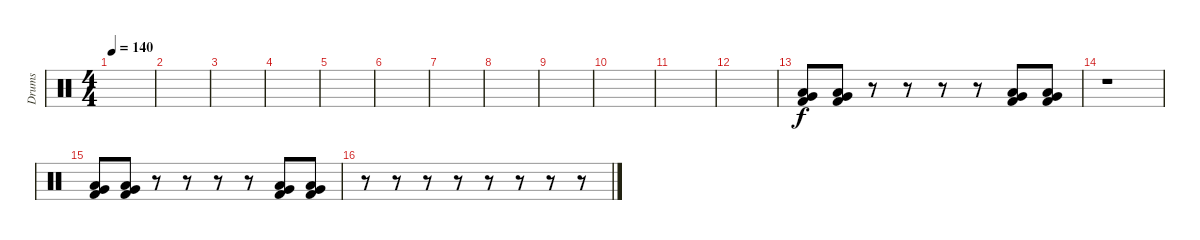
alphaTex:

\track ("Drums" "Drums") {instrument percussion}
\staff {score}
\articulation defaults
\ts (4 4)
\tempo 140
\clef neutral
\ks c
|
|
|
|
|
|
|
|
|
|
|
|
("Low Floor Tom (hit)" "Very Low Tom (hit)" "Kick (hit) 2").8 ("Low Floor Tom (hit)" "Very Low Tom (hit)" "Kick (hit) 2").8 r.8 r.8 r.8 r.8 ("Low Floor Tom (hit)" "Very Low Tom (hit)" "Kick (hit) 2").8 ("Low Floor Tom (hit)" "Very Low Tom (hit)" "Kick (hit) 2").8 |
r.1 |
("Low Floor Tom (hit)" "Very Low Tom (hit)" "Kick (hit) 2").8 ("Low Floor Tom (hit)" "Very Low Tom (hit)" "Kick (hit) 2").8 r.8 r.8 r.8 r.8 ("Low Floor Tom (hit)" "Very Low Tom (hit)" "Kick (hit) 2").8 ("Low Floor Tom (hit)" "Very Low Tom (hit)" "Kick (hit) 2").8 |
r.8 r.8 r.8 r.8 r.8 r.8 r.8 r.8
